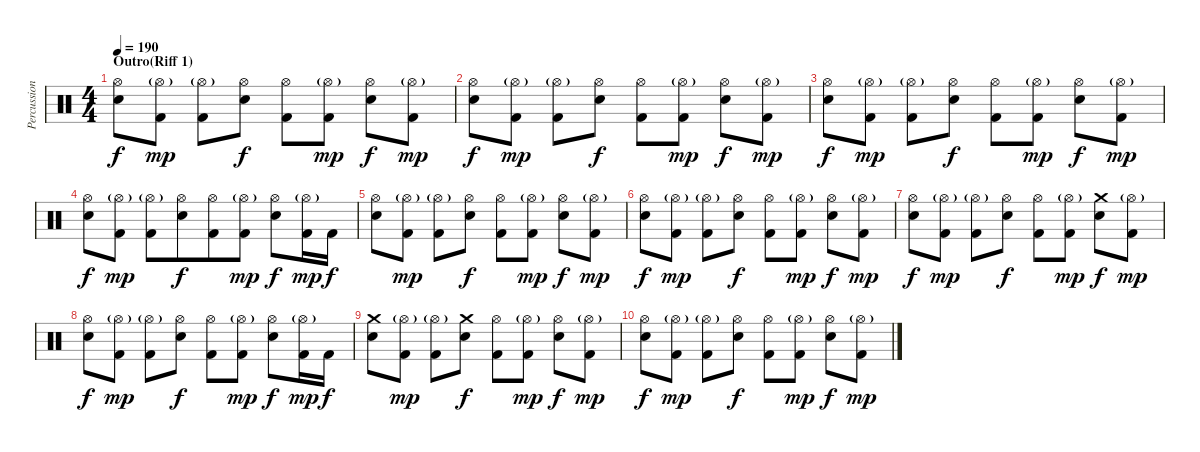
\track ("Percussion" "Percussion") {instrument percussion}
\staff {score}
\articulation defaults
\ts (4 4)
\section ("" "Outro(Riff 1)")
\tempo 190
\clef neutral
\ks c
("Hi-Hat (open)" "Electric Snare (hit)").8{dy f} ("Hi-Hat (open)"{g} "Kick (hit) 2").8{dy mp} ("Hi-Hat (open)"{g} "Kick (hit) 2").8 ("Hi-Hat (open)" "Electric Snare (hit)").8{dy f} ("Hi-Hat (open)" "Kick (hit) 2").8 ("Hi-Hat (open)"{g} "Kick (hit) 2").8{dy mp} ("Hi-Hat (open)" "Electric Snare (hit)").8{dy f} ("Hi-Hat (open)"{g} "Kick (hit) 2").8{dy mp} |
("Hi-Hat (open)" "Electric Snare (hit)").8{dy f} ("Hi-Hat (open)"{g} "Kick (hit) 2").8{dy mp} ("Hi-Hat (open)"{g} "Kick (hit) 2").8 ("Hi-Hat (open)" "Electric Snare (hit)").8{dy f} ("Hi-Hat (open)" "Kick (hit) 2").8 ("Hi-Hat (open)"{g} "Kick (hit) 2").8{dy mp} ("Hi-Hat (open)" "Electric Snare (hit)").8{dy f beam merge} ("Hi-Hat (open)"{g} "Kick (hit) 2").8{dy mp} |
("Hi-Hat (open)" "Electric Snare (hit)").8{dy f} ("Hi-Hat (open)"{g} "Kick (hit) 2").8{dy mp} ("Hi-Hat (open)"{g} "Kick (hit) 2").8 ("Hi-Hat (open)" "Electric Snare (hit)").8{dy f} ("Hi-Hat (open)" "Kick (hit) 2").8{beam merge} ("Hi-Hat (open)"{g} "Kick (hit) 2").8{dy mp} ("Hi-Hat (open)" "Electric Snare (hit)").8{dy f beam merge} ("Hi-Hat (open)"{g} "Kick (hit) 2").8{dy mp} |
("Hi-Hat (open)" "Electric Snare (hit)").8{dy f} ("Hi-Hat (open)"{g} "Kick (hit) 2").8{dy mp} ("Hi-Hat (open)"{g} "Kick (hit) 2").8 ("Hi-Hat (open)" "Electric Snare (hit)").8{dy f beam merge} ("Hi-Hat (open)" "Kick (hit) 2").8 ("Hi-Hat (open)"{g} "Kick (hit) 2").8{dy mp} ("Hi-Hat (open)" "Electric Snare (hit)").8{dy f} ("Hi-Hat (open)"{g} "Kick (hit) 2").16{dy mp} "Kick (hit) 2".16{dy f} |
("Hi-Hat (open)" "Electric Snare (hit)").8 ("Hi-Hat (open)"{g} "Kick (hit) 2").8{dy mp} ("Hi-Hat (open)"{g} "Kick (hit) 2").8 ("Hi-Hat (open)" "Electric Snare (hit)").8{dy f} ("Hi-Hat (open)" "Kick (hit) 2").8 ("Hi-Hat (open)"{g} "Kick (hit) 2").8{dy mp} ("Hi-Hat (open)" "Electric Snare (hit)").8{dy f} ("Hi-Hat (open)"{g} "Kick (hit) 2").8{dy mp} |
("Hi-Hat (open)" "Electric Snare (hit)").8{dy f} ("Hi-Hat (open)"{g} "Kick (hit) 2").8{dy mp} ("Hi-Hat (open)"{g} "Kick (hit) 2").8 ("Hi-Hat (open)" "Electric Snare (hit)").8{dy f} ("Hi-Hat (open)" "Kick (hit) 2").8 ("Hi-Hat (open)"{g} "Kick (hit) 2").8{dy mp} ("Hi-Hat (open)" "Electric Snare (hit)").8{dy f} ("Hi-Hat (open)"{g} "Kick (hit) 2").8{dy mp} |
("Hi-Hat (open)" "Electric Snare (hit)").8{dy f} ("Hi-Hat (open)"{g} "Kick (hit) 2").8{dy mp} ("Hi-Hat (open)"{g} "Kick (hit) 2").8 ("Hi-Hat (open)" "Electric Snare (hit)").8{dy f} ("Hi-Hat (open)" "Kick (hit) 2").8 ("Hi-Hat (open)"{g} "Kick (hit) 2").8{dy mp} ("Crash medium (hit)" "Electric Snare (hit)").8{dy f} ("Hi-Hat (open)"{g} "Kick (hit) 2").8{dy mp} |
("Hi-Hat (open)" "Electric Snare (hit)").8{dy f} ("Hi-Hat (open)"{g} "Kick (hit) 2").8{dy mp} ("Hi-Hat (open)"{g} "Kick (hit) 2").8 ("Hi-Hat (open)" "Electric Snare (hit)").8{dy f} ("Hi-Hat (open)" "Kick (hit) 2").8 ("Hi-Hat (open)"{g} "Kick (hit) 2").8{dy mp} ("Hi-Hat (open)" "Electric Snare (hit)").8{dy f} ("Hi-Hat (open)"{g} "Kick (hit) 2").16{dy mp} "Kick (hit) 2".16{dy f} |
("Crash medium (hit)" "Electric Snare (hit)").8 ("Hi-Hat (open)"{g} "Kick (hit) 2").8{dy mp} ("Hi-Hat (open)"{g} "Kick (hit) 2").8 ("Crash medium (hit)" "Electric Snare (hit)").8{dy f} ("Hi-Hat (open)" "Kick (hit) 2").8 ("Hi-Hat (open)"{g} "Kick (hit) 2").8{dy mp} ("Hi-Hat (open)" "Electric Snare (hit)").8{dy f} ("Hi-Hat (open)"{g} "Kick (hit) 2").8{dy mp} |
("Hi-Hat (open)" "Electric Snare (hit)").8{dy f} ("Hi-Hat (open)"{g} "Kick (hit) 2").8{dy mp} ("Hi-Hat (open)"{g} "Kick (hit) 2").8 ("Hi-Hat (open)" "Electric Snare (hit)").8{dy f} ("Hi-Hat (open)" "Kick (hit) 2").8 ("Hi-Hat (open)"{g} "Kick (hit) 2").8{dy mp} ("Hi-Hat (open)" "Electric Snare (hit)").8{dy f} ("Hi-Hat (open)"{g} "Kick (hit) 2").8{dy mp}
